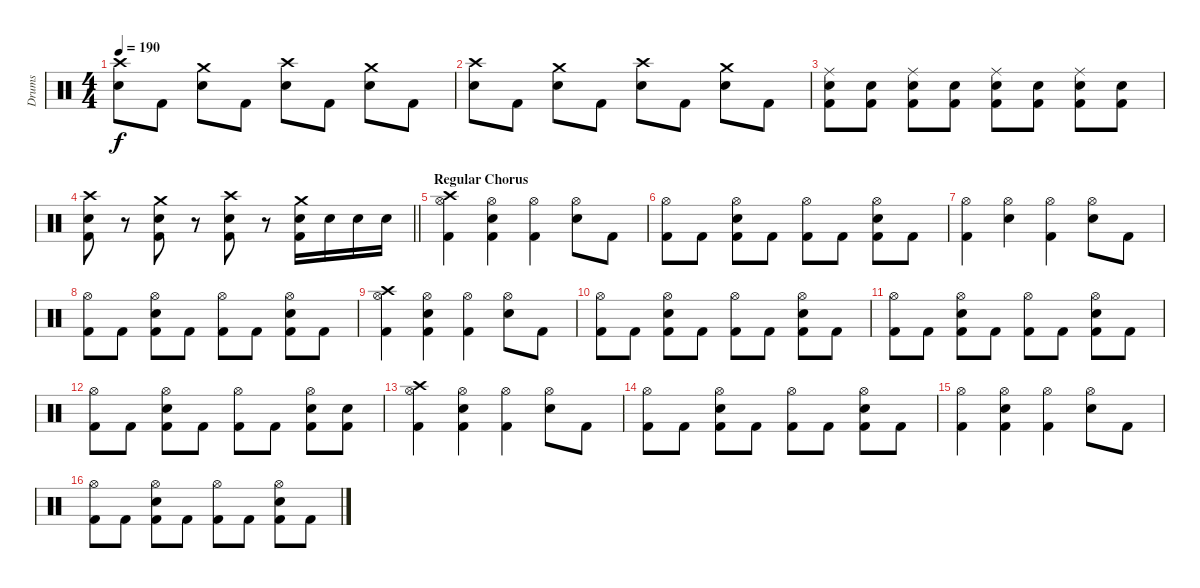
\track ("Drums" "Drums") {instrument percussion}
\staff {score}
\articulation defaults
\ts (4 4)
\tempo 190
\clef neutral
\ks c
("Crash high (hit)" "Snare (hit) 2").8{dy f} "Kick (hit) 2".8 ("Crash medium (hit)" "Snare (hit) 2").8 "Kick (hit) 2".8 ("Crash high (hit)" "Snare (hit) 2").8 "Kick (hit) 2".8 ("Crash medium (hit)" "Snare (hit) 2").8 "Kick (hit) 2".8 |
("Crash high (hit)" "Snare (hit) 2").8 "Kick (hit) 2".8 ("Crash medium (hit)" "Snare (hit) 2").8 "Kick (hit) 2".8 ("Crash high (hit)" "Snare (hit) 2").8 "Kick (hit) 2".8 ("Crash medium (hit)" "Snare (hit) 2").8 "Kick (hit) 2".8 |
("Ride (middle)" "Snare (hit) 2" "Kick (hit) 2").8 ("Snare (hit) 2" "Kick (hit) 2").8 ("Ride (middle)" "Snare (hit) 2" "Kick (hit) 2").8 ("Snare (hit) 2" "Kick (hit) 2").8 ("Ride (middle)" "Snare (hit) 2" "Kick (hit) 2").8 ("Snare (hit) 2" "Kick (hit) 2").8 ("Ride (middle)" "Snare (hit) 2" "Kick (hit) 2").8 ("Snare (hit) 2" "Kick (hit) 2").8 |
\barLineRight lightlight
("Crash high (hit)" "Snare (hit) 2" "Kick (hit) 2").8 r.8 ("Crash medium (hit)" "Snare (hit) 2" "Kick (hit) 2").8 r.8 ("Crash high (hit)" "Snare (hit) 2" "Kick (hit) 2").8 r.8 ("Crash medium (hit)" "Snare (hit) 2" "Kick (hit) 2").16 "Snare (hit) 2".16 "Snare (hit) 2".16 "Snare (hit) 2".16 |
\section ("" "Regular Chorus")
("Crash high (hit)" "Hi-Hat (open)" "Kick (hit) 2").4 ("Hi-Hat (open)" "Snare (hit) 2" "Kick (hit) 2").4 ("Hi-Hat (open)" "Kick (hit) 2").4 ("Hi-Hat (open)" "Snare (hit) 2").8 "Kick (hit) 2".8 |
("Hi-Hat (open)" "Kick (hit) 2").8 "Kick (hit) 2".8 ("Hi-Hat (open)" "Snare (hit) 2" "Kick (hit) 2").8 "Kick (hit) 2".8 ("Hi-Hat (open)" "Kick (hit) 2").8 "Kick (hit) 2".8 ("Hi-Hat (open)" "Snare (hit) 2" "Kick (hit) 2").8 "Kick (hit) 2".8 |
("Hi-Hat (open)" "Kick (hit) 2").4 ("Hi-Hat (open)" "Snare (hit) 2").4 ("Hi-Hat (open)" "Kick (hit) 2").4 ("Hi-Hat (open)" "Snare (hit) 2").8 "Kick (hit) 2".8 |
("Hi-Hat (open)" "Kick (hit) 2").8 "Kick (hit) 2".8 ("Hi-Hat (open)" "Snare (hit) 2" "Kick (hit) 2").8 "Kick (hit) 2".8 ("Hi-Hat (open)" "Kick (hit) 2").8 "Kick (hit) 2".8 ("Hi-Hat (open)" "Snare (hit) 2" "Kick (hit) 2").8 "Kick (hit) 2".8 |
("Crash high (hit)" "Hi-Hat (open)" "Kick (hit) 2").4 ("Hi-Hat (open)" "Snare (hit) 2" "Kick (hit) 2").4 ("Hi-Hat (open)" "Kick (hit) 2").4 ("Hi-Hat (open)" "Snare (hit) 2").8 "Kick (hit) 2".8 |
("Hi-Hat (open)" "Kick (hit) 2").8 "Kick (hit) 2".8 ("Hi-Hat (open)" "Snare (hit) 2" "Kick (hit) 2").8 "Kick (hit) 2".8 ("Hi-Hat (open)" "Kick (hit) 2").8 "Kick (hit) 2".8 ("Hi-Hat (open)" "Snare (hit) 2" "Kick (hit) 2").8 "Kick (hit) 2".8 |
("Hi-Hat (open)" "Kick (hit) 2").8 "Kick (hit) 2".8 ("Hi-Hat (open)" "Snare (hit) 2" "Kick (hit) 2").8 "Kick (hit) 2".8 ("Hi-Hat (open)" "Kick (hit) 2").8 "Kick (hit) 2".8 ("Hi-Hat (open)" "Snare (hit) 2" "Kick (hit) 2").8 "Kick (hit) 2".8 |
("Hi-Hat (open)" "Kick (hit) 2").8 "Kick (hit) 2".8 ("Hi-Hat (open)" "Snare (hit) 2" "Kick (hit) 2").8 "Kick (hit) 2".8 ("Hi-Hat (open)" "Kick (hit) 2").8 "Kick (hit) 2".8 ("Hi-Hat (open)" "Snare (hit) 2" "Kick (hit) 2").8 ("Snare (hit) 2" "Kick (hit) 2").8 |
("Crash high (hit)" "Hi-Hat (open)" "Kick (hit) 2").4 ("Hi-Hat (open)" "Snare (hit) 2" "Kick (hit) 2").4 ("Hi-Hat (open)" "Kick (hit) 2").4 ("Hi-Hat (open)" "Snare (hit) 2").8 "Kick (hit) 2".8 |
("Hi-Hat (open)" "Kick (hit) 2").8 "Kick (hit) 2".8 ("Hi-Hat (open)" "Snare (hit) 2" "Kick (hit) 2").8 "Kick (hit) 2".8 ("Hi-Hat (open)" "Kick (hit) 2").8 "Kick (hit) 2".8 ("Hi-Hat (open)" "Snare (hit) 2" "Kick (hit) 2").8 "Kick (hit) 2".8 |
("Hi-Hat (open)" "Kick (hit) 2").4 ("Hi-Hat (open)" "Snare (hit) 2" "Kick (hit) 2").4 ("Hi-Hat (open)" "Kick (hit) 2").4 ("Hi-Hat (open)" "Snare (hit) 2").8 "Kick (hit) 2".8 |
("Hi-Hat (open)" "Kick (hit) 2").8 "Kick (hit) 2".8 ("Hi-Hat (open)" "Snare (hit) 2" "Kick (hit) 2").8 "Kick (hit) 2".8 ("Hi-Hat (open)" "Kick (hit) 2").8 "Kick (hit) 2".8 ("Hi-Hat (open)" "Snare (hit) 2" "Kick (hit) 2").8 "Kick (hit) 2".8
